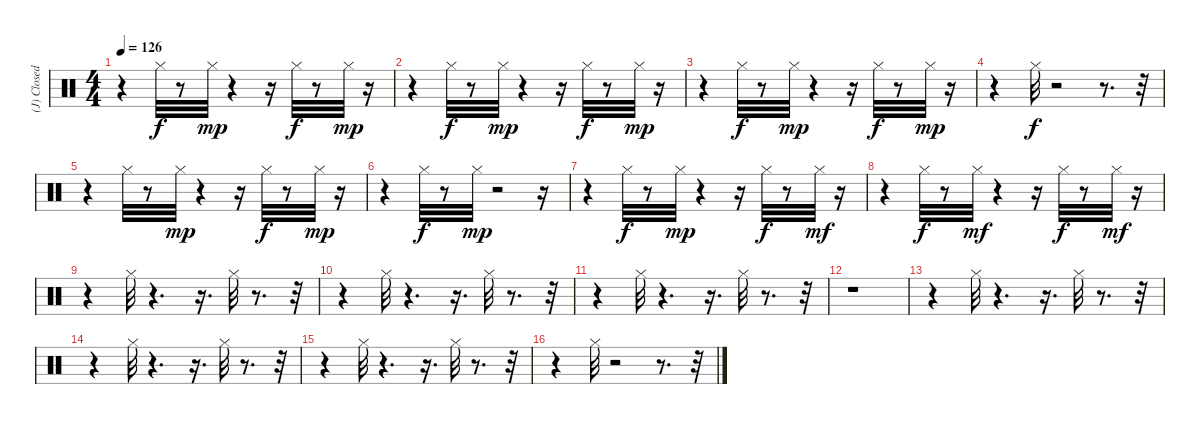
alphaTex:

\track ("(J) Closed Hi Hat" "(J) Closed") {instrument percussion}
\staff {score}
\articulation defaults
\ts (4 4)
\tempo 126
\clef neutral
\ks c
r.4{dy f} "Hi-Hat (closed)".32 r.8 "Hi-Hat (closed)".32{dy mp} r.4 r.16 "Hi-Hat (closed)".32{dy f} r.8 "Hi-Hat (closed)".32{dy mp} r.16 |
r.4 "Hi-Hat (closed)".32{dy f} r.8 "Hi-Hat (closed)".32{dy mp} r.4 r.16 "Hi-Hat (closed)".32{dy f} r.8 "Hi-Hat (closed)".32{dy mp} r.16 |
r.4 "Hi-Hat (closed)".32{dy f} r.8 "Hi-Hat (closed)".32{dy mp} r.4 r.16 "Hi-Hat (closed)".32{dy f} r.8 "Hi-Hat (closed)".32{dy mp} r.16 |
r.4 "Hi-Hat (closed)".32{dy f} r.2 r.8{d} r.32 |
r.4 "Hi-Hat (closed)".32 r.8 "Hi-Hat (closed)".32{dy mp} r.4 r.16 "Hi-Hat (closed)".32{dy f} r.8 "Hi-Hat (closed)".32{dy mp} r.16 |
r.4 "Hi-Hat (closed)".32{dy f} r.8 "Hi-Hat (closed)".32{dy mp} r.2 r.16 |
r.4 "Hi-Hat (closed)".32{dy f} r.8 "Hi-Hat (closed)".32{dy mp} r.4 r.16 "Hi-Hat (closed)".32{dy f} r.8 "Hi-Hat (closed)".32{dy mf} r.16 |
r.4 "Hi-Hat (closed)".32{dy f} r.8 "Hi-Hat (closed)".32{dy mf} r.4 r.16 "Hi-Hat (closed)".32{dy f} r.8 "Hi-Hat (closed)".32{dy mf} r.16 |
r.4 "Hi-Hat (closed)".32 r.4{d} r.16{d} "Hi-Hat (closed)".32 r.8{d} r.32 |
r.4 "Hi-Hat (closed)".32 r.4{d} r.16{d} "Hi-Hat (closed)".32 r.8{d} r.32 |
r.4 "Hi-Hat (closed)".32 r.4{d} r.16{d} "Hi-Hat (closed)".32 r.8{d} r.32 |
r.1 |
r.4 "Hi-Hat (closed)".32 r.4{d} r.16{d} "Hi-Hat (closed)".32 r.8{d} r.32 |
r.4 "Hi-Hat (closed)".32 r.4{d} r.16{d} "Hi-Hat (closed)".32 r.8{d} r.32 |
r.4 "Hi-Hat (closed)".32 r.4{d} r.16{d} "Hi-Hat (closed)".32 r.8{d} r.32 |
r.4 "Hi-Hat (closed)".32 r.2 r.8{d} r.32
